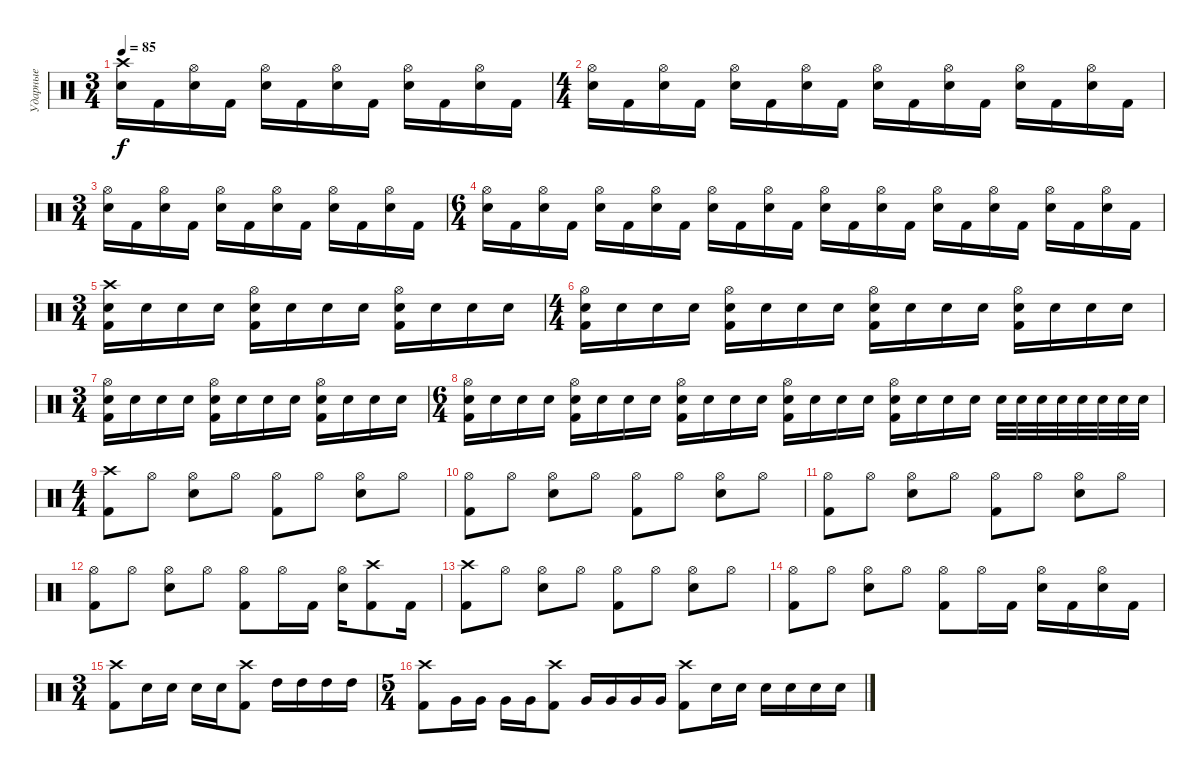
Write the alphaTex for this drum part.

\track ("Ударные" "Ударные") {instrument percussion}
\staff {score}
\articulation defaults
\ts (3 4)
\tempo 85
\clef neutral
\ks c
("Crash high (hit)" "Electric Snare (hit)").16{dy f} "Kick (hit) 2".16 ("Hi-Hat (open)" "Electric Snare (hit)").16 "Kick (hit) 2".16 ("Hi-Hat (open)" "Electric Snare (hit)").16 "Kick (hit) 2".16 ("Hi-Hat (open)" "Electric Snare (hit)").16 "Kick (hit) 2".16 ("Hi-Hat (open)" "Electric Snare (hit)").16 "Kick (hit) 2".16 ("Hi-Hat (open)" "Electric Snare (hit)").16 "Kick (hit) 2".16 |
\ts (4 4)
("Hi-Hat (open)" "Electric Snare (hit)").16 "Kick (hit) 2".16 ("Hi-Hat (open)" "Electric Snare (hit)").16 "Kick (hit) 2".16 ("Hi-Hat (open)" "Electric Snare (hit)").16 "Kick (hit) 2".16 ("Hi-Hat (open)" "Electric Snare (hit)").16 "Kick (hit) 2".16 ("Hi-Hat (open)" "Electric Snare (hit)").16 "Kick (hit) 2".16 ("Hi-Hat (open)" "Electric Snare (hit)").16 "Kick (hit) 2".16 ("Hi-Hat (open)" "Electric Snare (hit)").16 "Kick (hit) 2".16 ("Hi-Hat (open)" "Electric Snare (hit)").16 "Kick (hit) 2".16 |
\ts (3 4)
("Hi-Hat (open)" "Electric Snare (hit)").16 "Kick (hit) 2".16 ("Hi-Hat (open)" "Electric Snare (hit)").16 "Kick (hit) 2".16 ("Hi-Hat (open)" "Electric Snare (hit)").16 "Kick (hit) 2".16 ("Hi-Hat (open)" "Electric Snare (hit)").16 "Kick (hit) 2".16 ("Hi-Hat (open)" "Electric Snare (hit)").16 "Kick (hit) 2".16 ("Hi-Hat (open)" "Electric Snare (hit)").16 "Kick (hit) 2".16 |
\ts (6 4)
("Hi-Hat (open)" "Electric Snare (hit)").16 "Kick (hit) 2".16 ("Hi-Hat (open)" "Electric Snare (hit)").16 "Kick (hit) 2".16 ("Hi-Hat (open)" "Electric Snare (hit)").16 "Kick (hit) 2".16 ("Hi-Hat (open)" "Electric Snare (hit)").16 "Kick (hit) 2".16 ("Hi-Hat (open)" "Electric Snare (hit)").16 "Kick (hit) 2".16 ("Hi-Hat (open)" "Electric Snare (hit)").16 "Kick (hit) 2".16 ("Hi-Hat (open)" "Electric Snare (hit)").16 "Kick (hit) 2".16 ("Hi-Hat (open)" "Electric Snare (hit)").16 "Kick (hit) 2".16 ("Hi-Hat (open)" "Electric Snare (hit)").16 "Kick (hit) 2".16 ("Hi-Hat (open)" "Electric Snare (hit)").16 "Kick (hit) 2".16 ("Hi-Hat (open)" "Electric Snare (hit)").16 "Kick (hit) 2".16 ("Hi-Hat (open)" "Electric Snare (hit)").16 "Kick (hit) 2".16 |
\ts (3 4)
("Crash high (hit)" "Electric Snare (hit)" "Kick (hit) 2").16 "Electric Snare (hit)".16 "Electric Snare (hit)".16 "Electric Snare (hit)".16 ("Hi-Hat (open)" "Electric Snare (hit)" "Kick (hit) 2").16 "Electric Snare (hit)".16 "Electric Snare (hit)".16 "Electric Snare (hit)".16 ("Hi-Hat (open)" "Electric Snare (hit)" "Kick (hit) 2").16 "Electric Snare (hit)".16 "Electric Snare (hit)".16 "Electric Snare (hit)".16 |
\ts (4 4)
("Hi-Hat (open)" "Electric Snare (hit)" "Kick (hit) 2").16 "Electric Snare (hit)".16 "Electric Snare (hit)".16 "Electric Snare (hit)".16 ("Hi-Hat (open)" "Electric Snare (hit)" "Kick (hit) 2").16 "Electric Snare (hit)".16 "Electric Snare (hit)".16 "Electric Snare (hit)".16 ("Hi-Hat (open)" "Electric Snare (hit)" "Kick (hit) 2").16 "Electric Snare (hit)".16 "Electric Snare (hit)".16 "Electric Snare (hit)".16 ("Hi-Hat (open)" "Electric Snare (hit)" "Kick (hit) 2").16 "Electric Snare (hit)".16 "Electric Snare (hit)".16 "Electric Snare (hit)".16 |
\ts (3 4)
("Hi-Hat (open)" "Electric Snare (hit)" "Kick (hit) 2").16 "Electric Snare (hit)".16 "Electric Snare (hit)".16 "Electric Snare (hit)".16 ("Hi-Hat (open)" "Electric Snare (hit)" "Kick (hit) 2").16 "Electric Snare (hit)".16 "Electric Snare (hit)".16 "Electric Snare (hit)".16 ("Hi-Hat (open)" "Electric Snare (hit)" "Kick (hit) 2").16 "Electric Snare (hit)".16 "Electric Snare (hit)".16 "Electric Snare (hit)".16 |
\ts (6 4)
("Hi-Hat (open)" "Electric Snare (hit)" "Kick (hit) 2").16 "Electric Snare (hit)".16 "Electric Snare (hit)".16 "Electric Snare (hit)".16 ("Hi-Hat (open)" "Electric Snare (hit)" "Kick (hit) 2").16 "Electric Snare (hit)".16 "Electric Snare (hit)".16 "Electric Snare (hit)".16 ("Hi-Hat (open)" "Electric Snare (hit)" "Kick (hit) 2").16 "Electric Snare (hit)".16 "Electric Snare (hit)".16 "Electric Snare (hit)".16 ("Hi-Hat (open)" "Electric Snare (hit)" "Kick (hit) 2").16 "Electric Snare (hit)".16 "Electric Snare (hit)".16 "Electric Snare (hit)".16 ("Hi-Hat (open)" "Electric Snare (hit)" "Kick (hit) 2").16 "Electric Snare (hit)".16 "Electric Snare (hit)".16 "Electric Snare (hit)".16 "Electric Snare (hit)".32 "Electric Snare (hit)".32 "Electric Snare (hit)".32 "Electric Snare (hit)".32 "Electric Snare (hit)".32 "Electric Snare (hit)".32 "Electric Snare (hit)".32 "Electric Snare (hit)".32 |
\ts (4 4)
("Crash high (hit)" "Kick (hit) 2").8 "Hi-Hat (open)".8 ("Hi-Hat (open)" "Electric Snare (hit)").8 "Hi-Hat (open)".8 ("Hi-Hat (open)" "Kick (hit) 2").8 "Hi-Hat (open)".8 ("Hi-Hat (open)" "Electric Snare (hit)").8 "Hi-Hat (open)".8 |
("Hi-Hat (open)" "Kick (hit) 2").8 "Hi-Hat (open)".8 ("Hi-Hat (open)" "Electric Snare (hit)").8 "Hi-Hat (open)".8 ("Hi-Hat (open)" "Kick (hit) 2").8 "Hi-Hat (open)".8 ("Hi-Hat (open)" "Electric Snare (hit)").8 "Hi-Hat (open)".8 |
("Hi-Hat (open)" "Kick (hit) 2").8 "Hi-Hat (open)".8 ("Hi-Hat (open)" "Electric Snare (hit)").8 "Hi-Hat (open)".8 ("Hi-Hat (open)" "Kick (hit) 2").8 "Hi-Hat (open)".8 ("Hi-Hat (open)" "Electric Snare (hit)").8 "Hi-Hat (open)".8 |
("Hi-Hat (open)" "Kick (hit) 2").8 "Hi-Hat (open)".8 ("Hi-Hat (open)" "Electric Snare (hit)").8 "Hi-Hat (open)".8 ("Hi-Hat (open)" "Kick (hit) 2").8 "Hi-Hat (open)".16 "Kick (hit) 2".16 ("Hi-Hat (open)" "Electric Snare (hit)").16 ("Crash high (hit)" "Kick (hit) 2").8 "Kick (hit) 2".16 |
("Crash high (hit)" "Kick (hit) 2").8 "Hi-Hat (open)".8 ("Hi-Hat (open)" "Electric Snare (hit)").8 "Hi-Hat (open)".8 ("Hi-Hat (open)" "Kick (hit) 2").8 "Hi-Hat (open)".8 ("Hi-Hat (open)" "Electric Snare (hit)").8 "Hi-Hat (open)".8 |
("Hi-Hat (open)" "Kick (hit) 2").8 "Hi-Hat (open)".8 ("Hi-Hat (open)" "Electric Snare (hit)").8 "Hi-Hat (open)".8 ("Hi-Hat (open)" "Kick (hit) 2").8 "Hi-Hat (open)".16 "Kick (hit) 2".16 ("Hi-Hat (open)" "Electric Snare (hit)").16 "Kick (hit) 2".16 ("Hi-Hat (open)" "Electric Snare (hit)").16 "Kick (hit) 2".16 |
\ts (3 4)
("Crash high (hit)" "Kick (hit) 2").8 "Electric Snare (hit)".16 "Electric Snare (hit)".16 "Electric Snare (hit)".16 "Electric Snare (hit)".16 ("Crash high (hit)" "Kick (hit) 2").8 "High Tom (hit)".16 "High Tom (hit)".16 "High Tom (hit)".16 "High Tom (hit)".16 |
\ts (5 4)
("Crash high (hit)" "Kick (hit) 2").8 "Very Low Tom (hit)".16 "Very Low Tom (hit)".16 "Very Low Tom (hit)".16 "Very Low Tom (hit)".16 ("Crash high (hit)" "Kick (hit) 2").8 "Very Low Tom (hit)".16 "Very Low Tom (hit)".16 "Very Low Tom (hit)".16 "Very Low Tom (hit)".16 ("Crash high (hit)" "Kick (hit) 2").8 "Electric Snare (hit)".16 "Electric Snare (hit)".16 "Electric Snare (hit)".16 "Electric Snare (hit)".16 "Electric Snare (hit)".16 "Electric Snare (hit)".16
